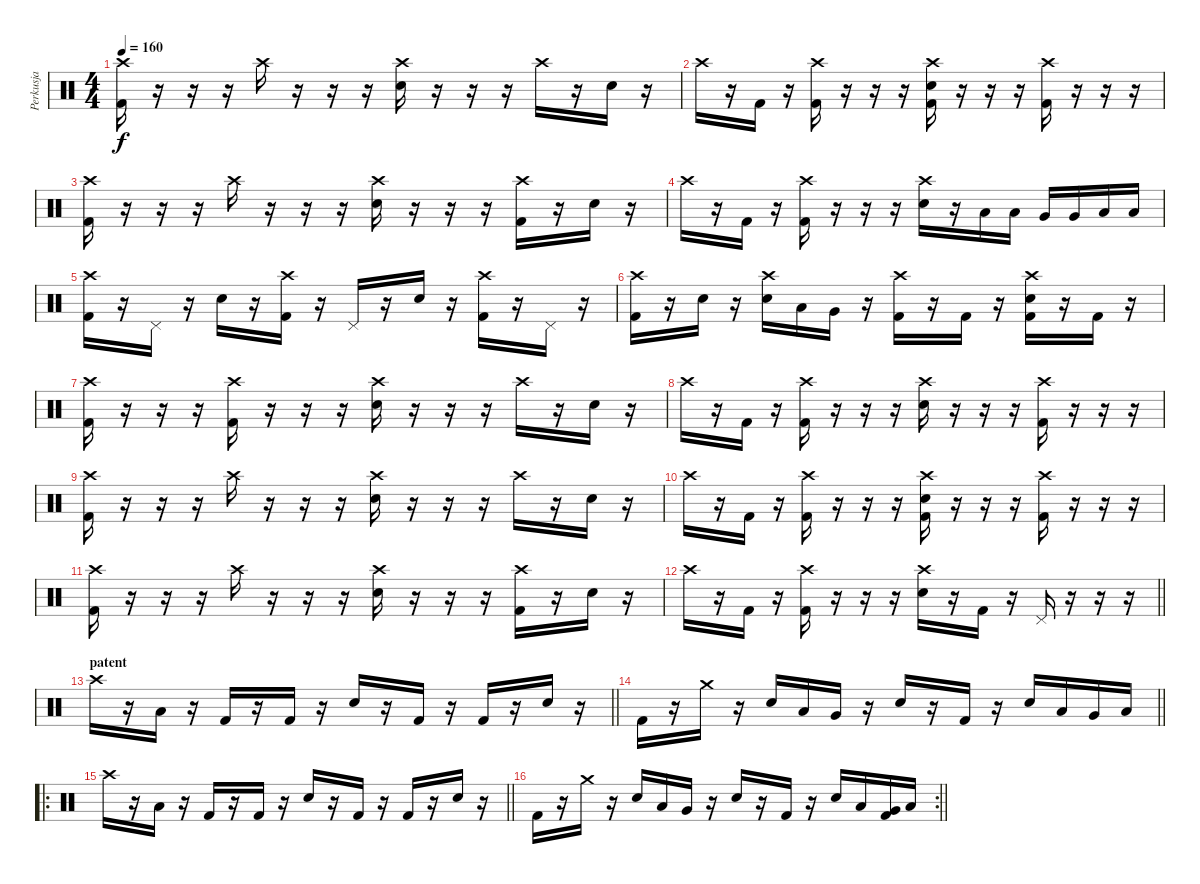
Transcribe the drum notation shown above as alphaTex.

\track ("Perkusja" "Perkusja") {instrument percussion}
\staff {score}
\articulation defaults
\ts (4 4)
\tempo 160
\clef neutral
\ks c
("Crash high (hit)" "Kick (hit) 2").16{dy f} r.16 r.16 r.16 "Crash high (hit)".16 r.16 r.16 r.16 ("Crash high (hit)" "Electric Snare (hit)").16 r.16 r.16 r.16 "Crash high (hit)".16 r.16 "Electric Snare (hit)".16 r.16 |
"Crash high (hit)".16 r.16 "Kick (hit) 2".16 r.16 ("Crash high (hit)" "Kick (hit) 2").16 r.16 r.16 r.16 ("Crash high (hit)" "Electric Snare (hit)" "Kick (hit) 2").16 r.16 r.16 r.16 ("Crash high (hit)" "Kick (hit) 2").16 r.16 r.16 r.16 |
("Crash high (hit)" "Kick (hit) 2").16 r.16 r.16 r.16 "Crash high (hit)".16 r.16 r.16 r.16 ("Crash high (hit)" "Electric Snare (hit)").16 r.16 r.16 r.16 ("Crash high (hit)" "Kick (hit) 2").16 r.16 "Electric Snare (hit)".16 r.16 |
"Crash high (hit)".16 r.16 "Kick (hit) 2".16 r.16 ("Crash high (hit)" "Kick (hit) 2").16 r.16 r.16 r.16 ("Crash high (hit)" "Electric Snare (hit)").16 r.16 "Low Tom (hit)".16 "Low Tom (hit)".16 "Very Low Tom (hit)".16 "Very Low Tom (hit)".16 "Low Floor Tom (hit)".16 "Low Floor Tom (hit)".16 |
("Crash high (hit)" "Kick (hit) 2").16 r.16 "Pedal Hi-Hat (hit)".16 r.16 "Electric Snare (hit)".16 r.16 ("Crash high (hit)" "Kick (hit) 2").16 r.16 "Pedal Hi-Hat (hit)".16 r.16 "Electric Snare (hit)".16 r.16 ("Crash high (hit)" "Kick (hit) 2").16 r.16 "Pedal Hi-Hat (hit)".16 r.16 |
("Crash high (hit)" "Kick (hit) 2").16 r.16 "Electric Snare (hit)".16 r.16 ("Crash high (hit)" "Electric Snare (hit)").16 "Low Tom (hit)".16 "Very Low Tom (hit)".16 r.16 ("Crash high (hit)" "Kick (hit) 2").16 r.16 "Kick (hit) 2".16 r.16 ("Crash high (hit)" "Electric Snare (hit)" "Kick (hit) 2").16 r.16 "Kick (hit) 2".16 r.16 |
("Crash high (hit)" "Kick (hit) 2").16 r.16 r.16 r.16 ("Crash high (hit)" "Kick (hit) 2").16 r.16 r.16 r.16 ("Crash high (hit)" "Electric Snare (hit)").16 r.16 r.16 r.16 "Crash high (hit)".16 r.16 "Electric Snare (hit)".16 r.16 |
"Crash high (hit)".16 r.16 "Kick (hit) 2".16 r.16 ("Crash high (hit)" "Kick (hit) 2").16 r.16 r.16 r.16 ("Crash high (hit)" "Electric Snare (hit)").16 r.16 r.16 r.16 ("Crash high (hit)" "Kick (hit) 2").16 r.16 r.16 r.16 |
("Crash high (hit)" "Kick (hit) 2").16 r.16 r.16 r.16 "Crash high (hit)".16 r.16 r.16 r.16 ("Crash high (hit)" "Electric Snare (hit)").16 r.16 r.16 r.16 "Crash high (hit)".16 r.16 "Electric Snare (hit)".16 r.16 |
"Crash high (hit)".16 r.16 "Kick (hit) 2".16 r.16 ("Crash high (hit)" "Kick (hit) 2").16 r.16 r.16 r.16 ("Crash high (hit)" "Electric Snare (hit)" "Kick (hit) 2").16 r.16 r.16 r.16 ("Crash high (hit)" "Kick (hit) 2").16 r.16 r.16 r.16 |
("Crash high (hit)" "Kick (hit) 2").16 r.16 r.16 r.16 "Crash high (hit)".16 r.16 r.16 r.16 ("Crash high (hit)" "Electric Snare (hit)").16 r.16 r.16 r.16 ("Crash high (hit)" "Kick (hit) 2").16 r.16 "Electric Snare (hit)".16 r.16 |
\barLineRight lightlight "Crash high (hit)".16
r.16 "Kick (hit) 2".16 r.16 ("Crash high (hit)" "Kick (hit) 2").16 r.16 r.16 r.16 ("Crash high (hit)" "Electric Snare (hit)").16 r.16 "Kick (hit) 2".16 r.16 "Pedal Hi-Hat (hit)".16 r.16 r.16 r.16 |
\section ("" "patent")
\barLineRight lightlight "Crash high (hit)".16
r.16 "Low Floor Tom (hit)".16 r.16 "Kick (hit) 2".16 r.16 "Kick (hit) 2".16 r.16 "Electric Snare (hit)".16 r.16 "Kick (hit) 2".16 r.16 "Kick (hit) 2".16 r.16 "Electric Snare (hit)".16 r.16 |
\barLineRight lightlight "Kick (hit) 2".16
r.16 "Crash medium (hit)".16 r.16 "Electric Snare (hit)".16 "Low Tom (hit)".16 "Very Low Tom (hit)".16 r.16 "Electric Snare (hit)".16 r.16 "Kick (hit) 2".16 r.16 "Electric Snare (hit)".16 "Low Tom (hit)".16 "Very Low Tom (hit)".16 "Low Floor Tom (hit)".16 |
\ro
\barLineRight lightlight "Crash high (hit)".16
r.16 "Low Floor Tom (hit)".16 r.16 "Kick (hit) 2".16 r.16 "Kick (hit) 2".16 r.16 "Electric Snare (hit)".16 r.16 "Kick (hit) 2".16 r.16 "Kick (hit) 2".16 r.16 "Electric Snare (hit)".16 r.16 |
\rc 2
\barLineRight lightlight "Kick (hit) 2".16
r.16 "Crash medium (hit)".16 r.16 "Electric Snare (hit)".16 "Low Tom (hit)".16 "Very Low Tom (hit)".16 r.16 "Electric Snare (hit)".16 r.16 "Kick (hit) 2".16 r.16 "Electric Snare (hit)".16 "Low Tom (hit)".16 ("Very Low Tom (hit)" "Kick (hit) 2").16 "Low Floor Tom (hit)".16
